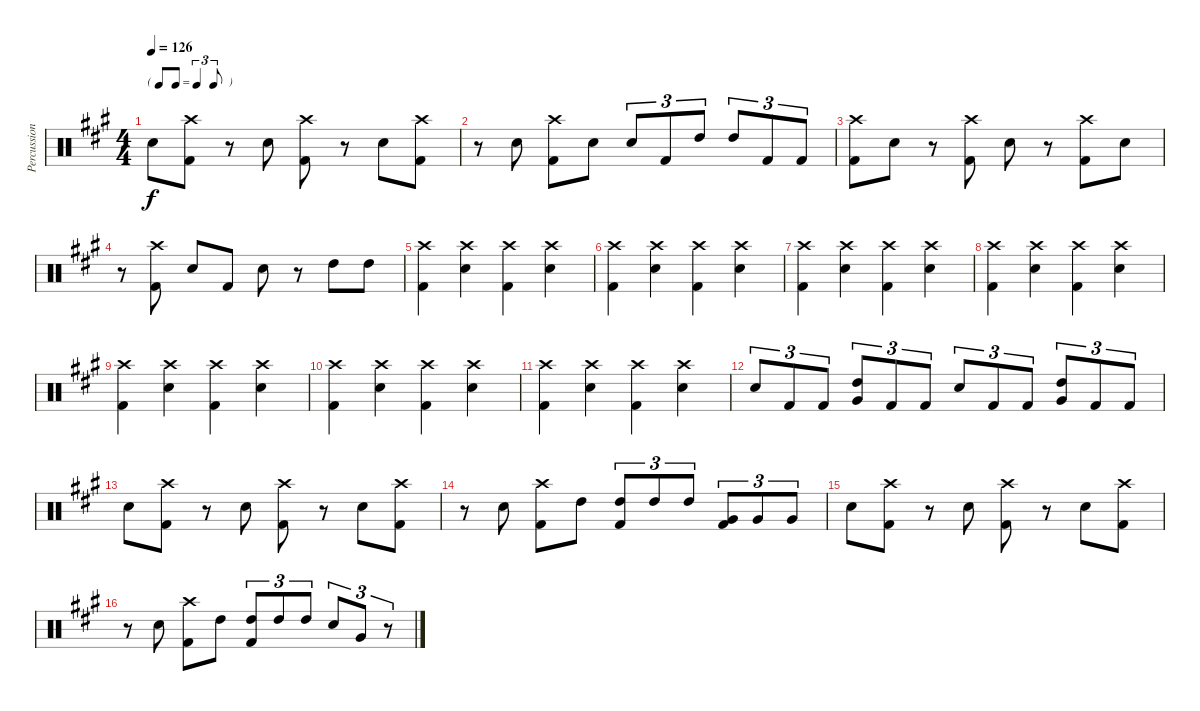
\track ("Percussion" "Percussion") {instrument percussion}
\staff {score}
\articulation defaults
\ts (4 4)
\tf triplet8th
\tempo 126
\clef neutral
\ks a "Snare (hit) 2".8{dy f}
("Crash high (hit)" "Kick (hit) 2").8 r.8 "Snare (hit) 2".8 ("Crash high (hit)" "Kick (hit) 2").8 r.8 "Snare (hit) 2".8 ("Crash high (hit)" "Kick (hit) 2").8 |
r.8 "Snare (hit) 2".8 ("Crash high (hit)" "Kick (hit) 2").8 "Snare (hit) 2".8 "Snare (hit) 2".8{tu (3 2)} "Kick (hit) 2".8{tu (3 2)} "High Tom (hit)".8{tu (3 2)} "High Tom (hit)".8{tu (3 2)} "Kick (hit) 2".8{tu (3 2)} "Kick (hit) 2".8{tu (3 2)} |
("Crash high (hit)" "Kick (hit) 2").8 "Snare (hit) 2".8 r.8 ("Crash high (hit)" "Kick (hit) 2").8 "Snare (hit) 2".8 r.8 ("Crash high (hit)" "Kick (hit) 2").8 "Snare (hit) 2".8 |
r.8 ("Crash high (hit)" "Kick (hit) 2").8 "Snare (hit) 2".8 "Kick (hit) 2".8 "Snare (hit) 2".8 r.8 "High Tom (hit)".8 "High Tom (hit)".8 |
("Crash high (hit)" "Kick (hit) 2").4 ("Crash high (hit)" "Snare (hit) 2").4 ("Crash high (hit)" "Kick (hit) 2").4 ("Crash high (hit)" "Snare (hit) 2").4 |
("Crash high (hit)" "Kick (hit) 2").4 ("Crash high (hit)" "Snare (hit) 2").4 ("Crash high (hit)" "Kick (hit) 2").4 ("Crash high (hit)" "Snare (hit) 2").4 |
("Crash high (hit)" "Kick (hit) 2").4 ("Crash high (hit)" "Snare (hit) 2").4 ("Crash high (hit)" "Kick (hit) 2").4 ("Crash high (hit)" "Snare (hit) 2").4 |
("Crash high (hit)" "Kick (hit) 2").4 ("Crash high (hit)" "Snare (hit) 2").4 ("Crash high (hit)" "Kick (hit) 2").4 ("Crash high (hit)" "Snare (hit) 2").4 |
("Crash high (hit)" "Kick (hit) 2").4 ("Crash high (hit)" "Snare (hit) 2").4 ("Crash high (hit)" "Kick (hit) 2").4 ("Crash high (hit)" "Snare (hit) 2").4 |
("Crash high (hit)" "Kick (hit) 2").4 ("Crash high (hit)" "Snare (hit) 2").4 ("Crash high (hit)" "Kick (hit) 2").4 ("Crash high (hit)" "Snare (hit) 2").4 |
("Crash high (hit)" "Kick (hit) 2").4 ("Crash high (hit)" "Snare (hit) 2").4 ("Crash high (hit)" "Kick (hit) 2").4 ("Crash high (hit)" "Snare (hit) 2").4 |
"Snare (hit) 2".8{tu (3 2)} "Kick (hit) 2".8{tu (3 2)} "Kick (hit) 2".8{tu (3 2)} ("High Tom (hit)" "Very Low Tom (hit)").8{tu (3 2)} "Kick (hit) 2".8{tu (3 2)} "Kick (hit) 2".8{tu (3 2)} "Snare (hit) 2".8{tu (3 2)} "Kick (hit) 2".8{tu (3 2)} "Kick (hit) 2".8{tu (3 2)} ("High Tom (hit)" "Very Low Tom (hit)").8{tu (3 2)} "Kick (hit) 2".8{tu (3 2)} "Kick (hit) 2".8{tu (3 2)} |
"Snare (hit) 2".8 ("Crash high (hit)" "Kick (hit) 2").8 r.8 "Snare (hit) 2".8 ("Crash high (hit)" "Kick (hit) 2").8 r.8 "Snare (hit) 2".8 ("Crash high (hit)" "Kick (hit) 2").8 |
r.8 "Snare (hit) 2".8 ("Crash high (hit)" "Kick (hit) 2").8 "High Tom (hit)".8 ("High Tom (hit)" "Kick (hit) 2").8{tu (3 2)} "High Tom (hit)".8{tu (3 2)} "High Tom (hit)".8{tu (3 2)} ("Very Low Tom (hit)" "Kick (hit) 2").8{tu (3 2)} "Very Low Tom (hit)".8{tu (3 2)} "Very Low Tom (hit)".8{tu (3 2)} |
"Snare (hit) 2".8 ("Crash high (hit)" "Kick (hit) 2").8 r.8 "Snare (hit) 2".8 ("Crash high (hit)" "Kick (hit) 2").8 r.8 "Snare (hit) 2".8 ("Crash high (hit)" "Kick (hit) 2").8 |
r.8 "Snare (hit) 2".8 ("Crash high (hit)" "Kick (hit) 2").8 "High Tom (hit)".8 ("High Tom (hit)" "Kick (hit) 2").8{tu (3 2)} "High Tom (hit)".8{tu (3 2)} "High Tom (hit)".8{tu (3 2)} "Snare (hit) 2".8{tu (3 2)} "Very Low Tom (hit)".8{tu (3 2)} r.8{tu (3 2)}
